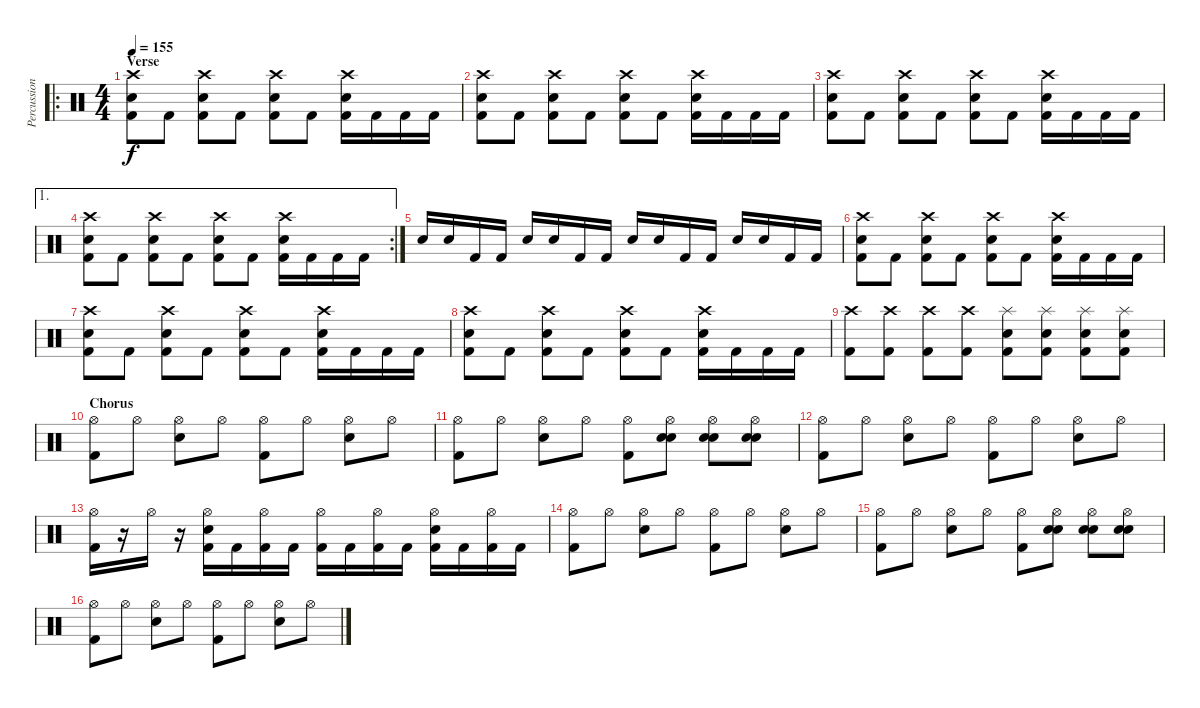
\track ("Percussion" "Percussion") {instrument percussion}
\staff {score}
\articulation defaults
\ro
\ts (4 4)
\section ("" "Verse")
\tempo 155
\clef neutral
\ks c
("Crash high (hit)" "Snare (hit) 2" "Kick (hit) 2").8{dy f} "Kick (hit) 2".8 ("Crash high (hit)" "Snare (hit) 2" "Kick (hit) 2").8 "Kick (hit) 2".8 ("Crash high (hit)" "Snare (hit) 2" "Kick (hit) 2").8 "Kick (hit) 2".8 ("Crash high (hit)" "Snare (hit) 2" "Kick (hit) 2").16 "Kick (hit) 2".16 "Kick (hit) 2".16 "Kick (hit) 2".16 |
("Crash high (hit)" "Snare (hit) 2" "Kick (hit) 2").8 "Kick (hit) 2".8 ("Crash high (hit)" "Snare (hit) 2" "Kick (hit) 2").8 "Kick (hit) 2".8 ("Crash high (hit)" "Snare (hit) 2" "Kick (hit) 2").8 "Kick (hit) 2".8 ("Crash high (hit)" "Snare (hit) 2" "Kick (hit) 2").16 "Kick (hit) 2".16 "Kick (hit) 2".16 "Kick (hit) 2".16 |
("Crash high (hit)" "Snare (hit) 2" "Kick (hit) 2").8 "Kick (hit) 2".8 ("Crash high (hit)" "Snare (hit) 2" "Kick (hit) 2").8 "Kick (hit) 2".8 ("Crash high (hit)" "Snare (hit) 2" "Kick (hit) 2").8 "Kick (hit) 2".8 ("Crash high (hit)" "Snare (hit) 2" "Kick (hit) 2").16 "Kick (hit) 2".16 "Kick (hit) 2".16 "Kick (hit) 2".16 |
\ae 1
\rc 2
("Crash high (hit)" "Snare (hit) 2" "Kick (hit) 2").8 "Kick (hit) 2".8 ("Crash high (hit)" "Snare (hit) 2" "Kick (hit) 2").8 "Kick (hit) 2".8 ("Crash high (hit)" "Snare (hit) 2" "Kick (hit) 2").8 "Kick (hit) 2".8 ("Crash high (hit)" "Snare (hit) 2" "Kick (hit) 2").16 "Kick (hit) 2".16 "Kick (hit) 2".16 "Kick (hit) 2".16 |
"Snare (hit) 2".16 "Snare (hit) 2".16 "Kick (hit) 2".16 "Kick (hit) 2".16 "Snare (hit) 2".16 "Snare (hit) 2".16 "Kick (hit) 2".16 "Kick (hit) 2".16 "Snare (hit) 2".16 "Snare (hit) 2".16 "Kick (hit) 2".16 "Kick (hit) 2".16 "Snare (hit) 2".16 "Snare (hit) 2".16 "Kick (hit) 2".16 "Kick (hit) 2".16 |
("Crash high (hit)" "Snare (hit) 2" "Kick (hit) 2").8 "Kick (hit) 2".8 ("Crash high (hit)" "Snare (hit) 2" "Kick (hit) 2").8 "Kick (hit) 2".8 ("Crash high (hit)" "Snare (hit) 2" "Kick (hit) 2").8 "Kick (hit) 2".8 ("Crash high (hit)" "Snare (hit) 2" "Kick (hit) 2").16 "Kick (hit) 2".16 "Kick (hit) 2".16 "Kick (hit) 2".16 |
("Crash high (hit)" "Snare (hit) 2" "Kick (hit) 2").8 "Kick (hit) 2".8 ("Crash high (hit)" "Snare (hit) 2" "Kick (hit) 2").8 "Kick (hit) 2".8 ("Crash high (hit)" "Snare (hit) 2" "Kick (hit) 2").8 "Kick (hit) 2".8 ("Crash high (hit)" "Snare (hit) 2" "Kick (hit) 2").16 "Kick (hit) 2".16 "Kick (hit) 2".16 "Kick (hit) 2".16 |
("Crash high (hit)" "Snare (hit) 2" "Kick (hit) 2").8 "Kick (hit) 2".8 ("Crash high (hit)" "Snare (hit) 2" "Kick (hit) 2").8 "Kick (hit) 2".8 ("Crash high (hit)" "Snare (hit) 2" "Kick (hit) 2").8 "Kick (hit) 2".8 ("Crash high (hit)" "Snare (hit) 2" "Kick (hit) 2").16 "Kick (hit) 2".16 "Kick (hit) 2".16 "Kick (hit) 2".16 |
("Crash high (hit)" "Kick (hit) 2").8 ("Crash high (hit)" "Kick (hit) 2").8 ("Crash high (hit)" "Kick (hit) 2").8 ("Crash high (hit)" "Kick (hit) 2").8 ("Splash (hit)" "Snare (hit) 2" "Kick (hit) 2").8 ("Splash (hit)" "Snare (hit) 2" "Kick (hit) 2").8 ("Splash (hit)" "Snare (hit) 2" "Kick (hit) 2").8 ("Splash (hit)" "Snare (hit) 2" "Kick (hit) 2").8 |
\section ("" "Chorus")
("Hi-Hat (open)" "Kick (hit) 2").8 "Hi-Hat (open)".8 ("Hi-Hat (open)" "Snare (hit) 2").8 "Hi-Hat (open)".8 ("Hi-Hat (open)" "Kick (hit) 2").8 "Hi-Hat (open)".8 ("Hi-Hat (open)" "Snare (hit) 2").8 "Hi-Hat (open)".8 |
("Hi-Hat (open)" "Kick (hit) 2").8 "Hi-Hat (open)".8 ("Hi-Hat (open)" "Snare (hit) 2").8 "Hi-Hat (open)".8 ("Hi-Hat (open)" "Kick (hit) 2").8 ("Hi-Hat (open)" "Snare (hit) 2" "Snare (hit) 2").8 ("Hi-Hat (open)" "Snare (hit) 2" "Snare (hit) 2").8 ("Hi-Hat (open)" "Snare (hit) 2" "Snare (hit) 2").8 |
("Hi-Hat (open)" "Kick (hit) 2").8 "Hi-Hat (open)".8 ("Hi-Hat (open)" "Snare (hit) 2").8 "Hi-Hat (open)".8 ("Hi-Hat (open)" "Kick (hit) 2").8 "Hi-Hat (open)".8 ("Hi-Hat (open)" "Snare (hit) 2").8 "Hi-Hat (open)".8 |
("Hi-Hat (open)" "Kick (hit) 2").16 r.16 "Hi-Hat (open)".16 r.16 ("Hi-Hat (open)" "Snare (hit) 2" "Kick (hit) 2").16 "Kick (hit) 2".16 ("Hi-Hat (open)" "Kick (hit) 2").16 "Kick (hit) 2".16 ("Hi-Hat (open)" "Kick (hit) 2").16 "Kick (hit) 2".16 ("Hi-Hat (open)" "Kick (hit) 2").16 "Kick (hit) 2".16 ("Hi-Hat (open)" "Snare (hit) 2" "Kick (hit) 2").16 "Kick (hit) 2".16 ("Hi-Hat (open)" "Kick (hit) 2").16 "Kick (hit) 2".16 |
("Hi-Hat (open)" "Kick (hit) 2").8 "Hi-Hat (open)".8 ("Hi-Hat (open)" "Snare (hit) 2").8 "Hi-Hat (open)".8 ("Hi-Hat (open)" "Kick (hit) 2").8 "Hi-Hat (open)".8 ("Hi-Hat (open)" "Snare (hit) 2").8 "Hi-Hat (open)".8 |
("Hi-Hat (open)" "Kick (hit) 2").8 "Hi-Hat (open)".8 ("Hi-Hat (open)" "Snare (hit) 2").8 "Hi-Hat (open)".8 ("Hi-Hat (open)" "Kick (hit) 2").8 ("Hi-Hat (open)" "Snare (hit) 2" "Snare (hit) 2").8 ("Hi-Hat (open)" "Snare (hit) 2" "Snare (hit) 2").8 ("Hi-Hat (open)" "Snare (hit) 2" "Snare (hit) 2").8 |
("Hi-Hat (open)" "Kick (hit) 2").8 "Hi-Hat (open)".8 ("Hi-Hat (open)" "Snare (hit) 2").8 "Hi-Hat (open)".8 ("Hi-Hat (open)" "Kick (hit) 2").8 "Hi-Hat (open)".8 ("Hi-Hat (open)" "Snare (hit) 2").8 "Hi-Hat (open)".8
